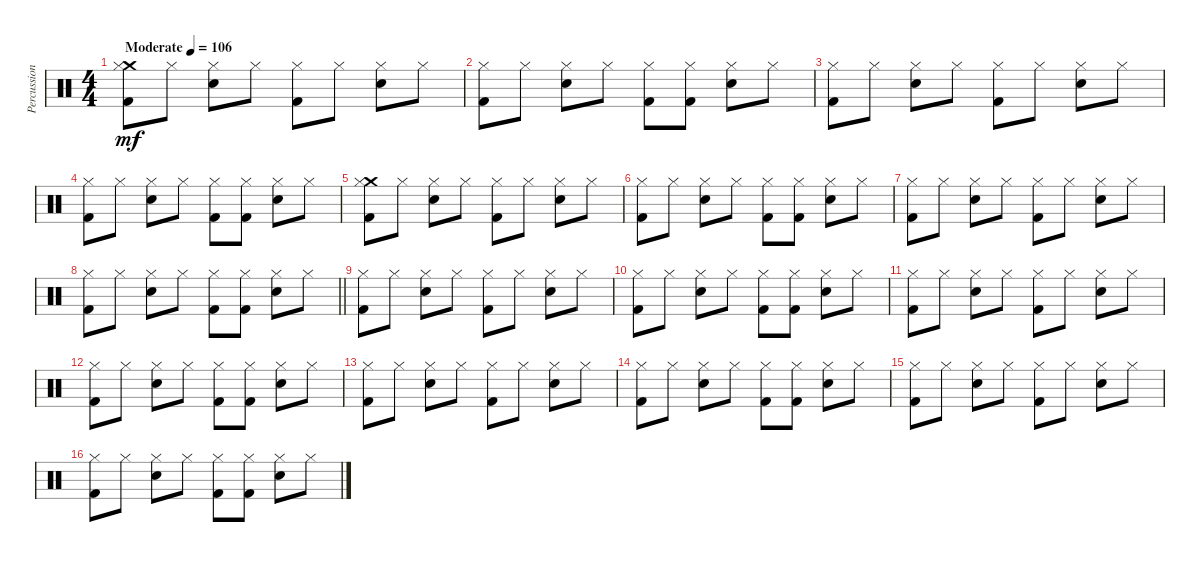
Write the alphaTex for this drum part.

\track ("Percussion" "Percussion") {instrument percussion}
\staff {score}
\articulation defaults
\ts (4 4)
\tempo (106 "Moderate")
\clef neutral
\ks c
("Crash medium (hit)" "Hi-Hat (closed)" "Kick (hit) 2").8{dy mf} "Hi-Hat (closed)".8 ("Hi-Hat (closed)" "Electric Snare (hit)").8 "Hi-Hat (closed)".8 ("Hi-Hat (closed)" "Kick (hit) 2").8 "Hi-Hat (closed)".8 ("Hi-Hat (closed)" "Electric Snare (hit)").8 "Hi-Hat (closed)".8 |
("Hi-Hat (closed)" "Kick (hit) 2").8 "Hi-Hat (closed)".8 ("Hi-Hat (closed)" "Electric Snare (hit)").8 "Hi-Hat (closed)".8 ("Hi-Hat (closed)" "Kick (hit) 2").8 ("Hi-Hat (closed)" "Kick (hit) 2").8 ("Hi-Hat (closed)" "Electric Snare (hit)").8 "Hi-Hat (closed)".8 |
("Hi-Hat (closed)" "Kick (hit) 2").8 "Hi-Hat (closed)".8 ("Hi-Hat (closed)" "Electric Snare (hit)").8 "Hi-Hat (closed)".8 ("Hi-Hat (closed)" "Kick (hit) 2").8 "Hi-Hat (closed)".8 ("Hi-Hat (closed)" "Electric Snare (hit)").8 "Hi-Hat (closed)".8 |
("Hi-Hat (closed)" "Kick (hit) 2").8 "Hi-Hat (closed)".8 ("Hi-Hat (closed)" "Electric Snare (hit)").8 "Hi-Hat (closed)".8 ("Hi-Hat (closed)" "Kick (hit) 2").8 ("Hi-Hat (closed)" "Kick (hit) 2").8 ("Hi-Hat (closed)" "Electric Snare (hit)").8 "Hi-Hat (closed)".8 |
("Crash medium (hit)" "Hi-Hat (closed)" "Kick (hit) 2").8 "Hi-Hat (closed)".8 ("Hi-Hat (closed)" "Electric Snare (hit)").8 "Hi-Hat (closed)".8 ("Hi-Hat (closed)" "Kick (hit) 2").8 "Hi-Hat (closed)".8 ("Hi-Hat (closed)" "Electric Snare (hit)").8 "Hi-Hat (closed)".8 |
("Hi-Hat (closed)" "Kick (hit) 2").8 "Hi-Hat (closed)".8 ("Hi-Hat (closed)" "Electric Snare (hit)").8 "Hi-Hat (closed)".8 ("Hi-Hat (closed)" "Kick (hit) 2").8 ("Hi-Hat (closed)" "Kick (hit) 2").8 ("Hi-Hat (closed)" "Electric Snare (hit)").8 "Hi-Hat (closed)".8 |
("Hi-Hat (closed)" "Kick (hit) 2").8 "Hi-Hat (closed)".8 ("Hi-Hat (closed)" "Electric Snare (hit)").8 "Hi-Hat (closed)".8 ("Hi-Hat (closed)" "Kick (hit) 2").8 "Hi-Hat (closed)".8 ("Hi-Hat (closed)" "Electric Snare (hit)").8 "Hi-Hat (closed)".8 |
\barLineRight lightlight
("Hi-Hat (closed)" "Kick (hit) 2").8 "Hi-Hat (closed)".8 ("Hi-Hat (closed)" "Electric Snare (hit)").8 "Hi-Hat (closed)".8 ("Hi-Hat (closed)" "Kick (hit) 2").8 ("Hi-Hat (closed)" "Kick (hit) 2").8 ("Hi-Hat (closed)" "Electric Snare (hit)").8 "Hi-Hat (closed)".8 |
("Hi-Hat (closed)" "Kick (hit) 2").8 "Hi-Hat (closed)".8 ("Hi-Hat (closed)" "Electric Snare (hit)").8 "Hi-Hat (closed)".8 ("Hi-Hat (closed)" "Kick (hit) 2").8 "Hi-Hat (closed)".8 ("Hi-Hat (closed)" "Electric Snare (hit)").8 "Hi-Hat (closed)".8 |
("Hi-Hat (closed)" "Kick (hit) 2").8 "Hi-Hat (closed)".8 ("Hi-Hat (closed)" "Electric Snare (hit)").8 "Hi-Hat (closed)".8 ("Hi-Hat (closed)" "Kick (hit) 2").8 ("Hi-Hat (closed)" "Kick (hit) 2").8 ("Hi-Hat (closed)" "Electric Snare (hit)").8 "Hi-Hat (closed)".8 |
("Hi-Hat (closed)" "Kick (hit) 2").8 "Hi-Hat (closed)".8 ("Hi-Hat (closed)" "Electric Snare (hit)").8 "Hi-Hat (closed)".8 ("Hi-Hat (closed)" "Kick (hit) 2").8 "Hi-Hat (closed)".8 ("Hi-Hat (closed)" "Electric Snare (hit)").8 "Hi-Hat (closed)".8 |
("Hi-Hat (closed)" "Kick (hit) 2").8 "Hi-Hat (closed)".8 ("Hi-Hat (closed)" "Electric Snare (hit)").8 "Hi-Hat (closed)".8 ("Hi-Hat (closed)" "Kick (hit) 2").8 ("Hi-Hat (closed)" "Kick (hit) 2").8 ("Hi-Hat (closed)" "Electric Snare (hit)").8 "Hi-Hat (closed)".8 |
("Hi-Hat (closed)" "Kick (hit) 2").8 "Hi-Hat (closed)".8 ("Hi-Hat (closed)" "Electric Snare (hit)").8 "Hi-Hat (closed)".8 ("Hi-Hat (closed)" "Kick (hit) 2").8 "Hi-Hat (closed)".8 ("Hi-Hat (closed)" "Electric Snare (hit)").8 "Hi-Hat (closed)".8 |
("Hi-Hat (closed)" "Kick (hit) 2").8 "Hi-Hat (closed)".8 ("Hi-Hat (closed)" "Electric Snare (hit)").8 "Hi-Hat (closed)".8 ("Hi-Hat (closed)" "Kick (hit) 2").8 ("Hi-Hat (closed)" "Kick (hit) 2").8 ("Hi-Hat (closed)" "Electric Snare (hit)").8 "Hi-Hat (closed)".8 |
("Hi-Hat (closed)" "Kick (hit) 2").8 "Hi-Hat (closed)".8 ("Hi-Hat (closed)" "Electric Snare (hit)").8 "Hi-Hat (closed)".8 ("Hi-Hat (closed)" "Kick (hit) 2").8 "Hi-Hat (closed)".8 ("Hi-Hat (closed)" "Electric Snare (hit)").8 "Hi-Hat (closed)".8 |
("Hi-Hat (closed)" "Kick (hit) 2").8 "Hi-Hat (closed)".8 ("Hi-Hat (closed)" "Electric Snare (hit)").8 "Hi-Hat (closed)".8 ("Hi-Hat (closed)" "Kick (hit) 2").8 ("Hi-Hat (closed)" "Kick (hit) 2").8 ("Hi-Hat (closed)" "Electric Snare (hit)").8 "Hi-Hat (closed)".8
